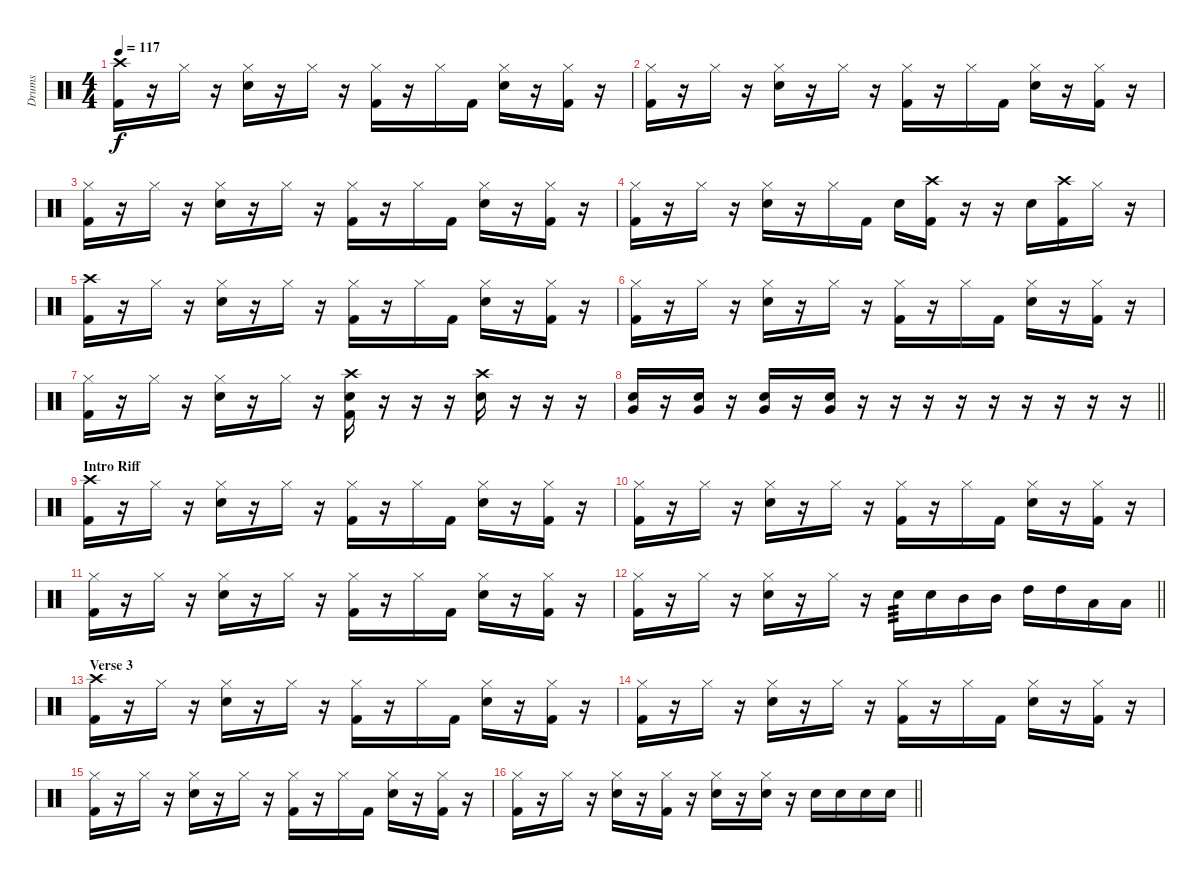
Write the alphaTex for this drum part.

\track ("Drums" "Drums") {instrument percussion}
\staff {score}
\articulation defaults
\ts (4 4)
\tempo 117
\clef neutral
\ks c
("Crash high (hit)" "Kick (hit) 2").16{dy f} r.16 "Hi-Hat (closed)".16 r.16 ("Hi-Hat (closed)" "Electric Snare (hit)").16 r.16 "Hi-Hat (closed)".16 r.16 ("Hi-Hat (closed)" "Kick (hit) 2").16 r.16 "Hi-Hat (closed)".16 "Kick (hit) 2".16 ("Hi-Hat (closed)" "Electric Snare (hit)").16 r.16 ("Hi-Hat (closed)" "Kick (hit) 2").16 r.16 |
("Hi-Hat (closed)" "Kick (hit) 2").16 r.16 "Hi-Hat (closed)".16 r.16 ("Hi-Hat (closed)" "Electric Snare (hit)").16 r.16 "Hi-Hat (closed)".16 r.16 ("Hi-Hat (closed)" "Kick (hit) 2").16 r.16 "Hi-Hat (closed)".16 "Kick (hit) 2".16 ("Hi-Hat (closed)" "Electric Snare (hit)").16 r.16 ("Hi-Hat (closed)" "Kick (hit) 2").16 r.16 |
("Hi-Hat (closed)" "Kick (hit) 2").16 r.16 "Hi-Hat (closed)".16 r.16 ("Hi-Hat (closed)" "Electric Snare (hit)").16 r.16 "Hi-Hat (closed)".16 r.16 ("Hi-Hat (closed)" "Kick (hit) 2").16 r.16 "Hi-Hat (closed)".16 "Kick (hit) 2".16 ("Hi-Hat (closed)" "Electric Snare (hit)").16 r.16 ("Hi-Hat (closed)" "Kick (hit) 2").16 r.16 |
("Hi-Hat (closed)" "Kick (hit) 2").16 r.16 "Hi-Hat (closed)".16 r.16 ("Hi-Hat (closed)" "Electric Snare (hit)").16 r.16 "Hi-Hat (closed)".16 "Kick (hit) 2".16 "Electric Snare (hit)".16 ("Crash high (hit)" "Kick (hit) 2").16 r.16 r.16 "Electric Snare (hit)".16 ("Crash high (hit)" "Kick (hit) 2").16 "Hi-Hat (closed)".16 r.16 |
("Crash high (hit)" "Kick (hit) 2").16 r.16 "Hi-Hat (closed)".16 r.16 ("Hi-Hat (closed)" "Electric Snare (hit)").16 r.16 "Hi-Hat (closed)".16 r.16 ("Hi-Hat (closed)" "Kick (hit) 2").16 r.16 "Hi-Hat (closed)".16 "Kick (hit) 2".16 ("Hi-Hat (closed)" "Electric Snare (hit)").16 r.16 ("Hi-Hat (closed)" "Kick (hit) 2").16 r.16 |
("Hi-Hat (closed)" "Kick (hit) 2").16 r.16 "Hi-Hat (closed)".16 r.16 ("Hi-Hat (closed)" "Electric Snare (hit)").16 r.16 "Hi-Hat (closed)".16 r.16 ("Hi-Hat (closed)" "Kick (hit) 2").16 r.16 "Hi-Hat (closed)".16 "Kick (hit) 2".16 ("Hi-Hat (closed)" "Electric Snare (hit)").16 r.16 ("Hi-Hat (closed)" "Kick (hit) 2").16 r.16 |
("Hi-Hat (closed)" "Kick (hit) 2").16 r.16 "Hi-Hat (closed)".16 r.16 ("Hi-Hat (closed)" "Electric Snare (hit)").16 r.16 "Hi-Hat (closed)".16 r.16 ("Crash high (hit)" "Electric Snare (hit)" "Kick (hit) 2").16 r.16 r.16 r.16 ("Crash high (hit)" "Electric Snare (hit)").16 r.16 r.16 r.16 |
\barLineRight lightlight
("Very Low Tom (hit)" "Electric Snare (hit)").16 r.16 ("Very Low Tom (hit)" "Electric Snare (hit)").16 r.16 ("Very Low Tom (hit)" "Electric Snare (hit)").16 r.16 ("Very Low Tom (hit)" "Electric Snare (hit)").16 r.16 r.16 r.16 r.16 r.16 r.16 r.16 r.16 r.16 |
\section ("" "Intro Riff")
("Crash high (hit)" "Kick (hit) 2").16 r.16 "Hi-Hat (closed)".16 r.16 ("Hi-Hat (closed)" "Electric Snare (hit)").16 r.16 "Hi-Hat (closed)".16 r.16 ("Hi-Hat (closed)" "Kick (hit) 2").16 r.16 "Hi-Hat (closed)".16 "Kick (hit) 2".16 ("Hi-Hat (closed)" "Electric Snare (hit)").16 r.16 ("Hi-Hat (closed)" "Kick (hit) 2").16 r.16 |
("Hi-Hat (closed)" "Kick (hit) 2").16 r.16 "Hi-Hat (closed)".16 r.16 ("Hi-Hat (closed)" "Electric Snare (hit)").16 r.16 "Hi-Hat (closed)".16 r.16 ("Hi-Hat (closed)" "Kick (hit) 2").16 r.16 "Hi-Hat (closed)".16 "Kick (hit) 2".16 ("Hi-Hat (closed)" "Electric Snare (hit)").16 r.16 ("Hi-Hat (closed)" "Kick (hit) 2").16 r.16 |
("Hi-Hat (closed)" "Kick (hit) 2").16 r.16 "Hi-Hat (closed)".16 r.16 ("Hi-Hat (closed)" "Electric Snare (hit)").16 r.16 "Hi-Hat (closed)".16 r.16 ("Hi-Hat (closed)" "Kick (hit) 2").16 r.16 "Hi-Hat (closed)".16 "Kick (hit) 2".16 ("Hi-Hat (closed)" "Electric Snare (hit)").16 r.16 ("Hi-Hat (closed)" "Kick (hit) 2").16 r.16 |
\barLineRight lightlight
("Hi-Hat (closed)" "Kick (hit) 2").16 r.16 "Hi-Hat (closed)".16 r.16 ("Hi-Hat (closed)" "Electric Snare (hit)").16 r.16 "Hi-Hat (closed)".16 r.16 "Electric Snare (hit)".16{tp 3} "Electric Snare (hit)".16 "Mid Tom (hit)".16 "Mid Tom (hit)".16 "High Tom (hit)".16 "High Tom (hit)".16 "Low Tom (hit)".16 "Low Tom (hit)".16 |
\section ("" "Verse 3")
("Crash high (hit)" "Kick (hit) 2").16 r.16 "Hi-Hat (closed)".16 r.16 ("Hi-Hat (closed)" "Electric Snare (hit)").16 r.16 "Hi-Hat (closed)".16 r.16 ("Hi-Hat (closed)" "Kick (hit) 2").16 r.16 "Hi-Hat (closed)".16 "Kick (hit) 2".16 ("Hi-Hat (closed)" "Electric Snare (hit)").16 r.16 ("Hi-Hat (closed)" "Kick (hit) 2").16 r.16 |
("Hi-Hat (closed)" "Kick (hit) 2").16 r.16 "Hi-Hat (closed)".16 r.16 ("Hi-Hat (closed)" "Electric Snare (hit)").16 r.16 "Hi-Hat (closed)".16 r.16 ("Hi-Hat (closed)" "Kick (hit) 2").16 r.16 "Hi-Hat (closed)".16 "Kick (hit) 2".16 ("Hi-Hat (closed)" "Electric Snare (hit)").16 r.16 ("Hi-Hat (closed)" "Kick (hit) 2").16 r.16 |
("Hi-Hat (closed)" "Kick (hit) 2").16 r.16 "Hi-Hat (closed)".16 r.16 ("Hi-Hat (closed)" "Electric Snare (hit)").16 r.16 "Hi-Hat (closed)".16 r.16 ("Hi-Hat (closed)" "Kick (hit) 2").16 r.16 "Hi-Hat (closed)".16 "Kick (hit) 2".16 ("Hi-Hat (closed)" "Electric Snare (hit)").16 r.16 ("Hi-Hat (closed)" "Kick (hit) 2").16 r.16 |
\barLineRight lightlight
("Hi-Hat (closed)" "Kick (hit) 2").16 r.16 "Hi-Hat (closed)".16 r.16 ("Hi-Hat (closed)" "Electric Snare (hit)").16 r.16 ("Hi-Hat (closed)" "Kick (hit) 2").16 r.16 ("Hi-Hat (closed)" "Electric Snare (hit)").16 r.16 ("Hi-Hat (closed)" "Electric Snare (hit)").16 r.16 "Electric Snare (hit)".16 "Electric Snare (hit)".16 "Electric Snare (hit)".16 "Electric Snare (hit)".16
